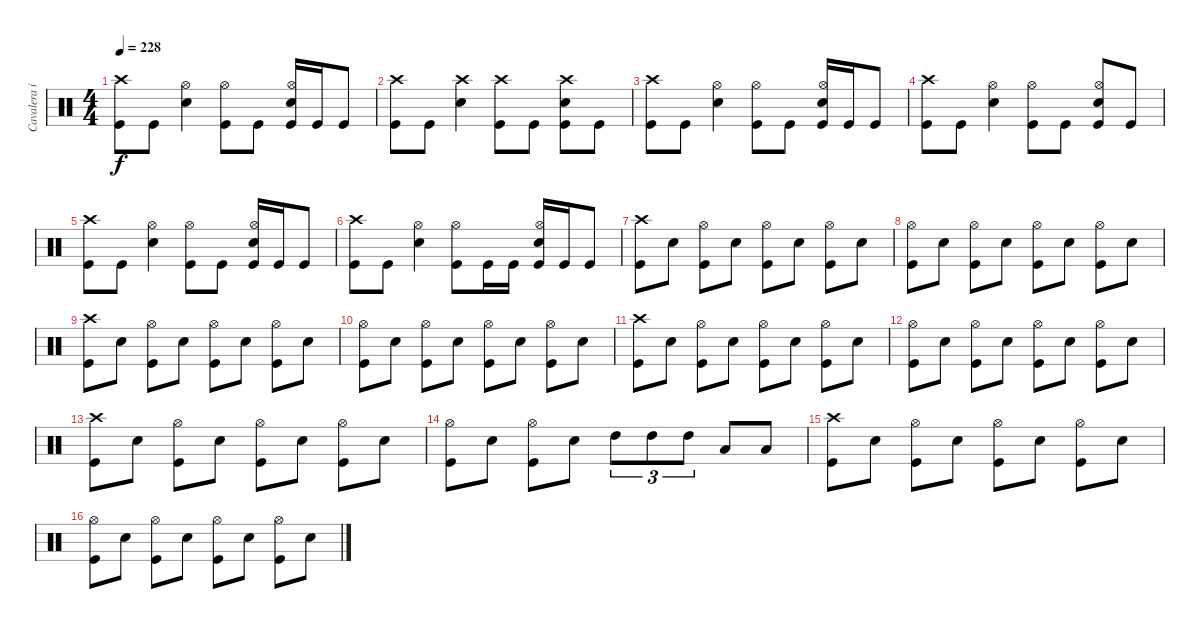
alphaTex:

\track ("Cavalera igor" "Cavalera i") {instrument percussion}
\staff {score}
\articulation defaults
\ts (4 4)
\tempo 228
\clef neutral
\ks c
("Crash high (hit)" "Kick (hit)").8{dy f} "Kick (hit)".8 ("Hi-Hat (open)" "Electric Snare (hit)").4 ("Hi-Hat (open)" "Kick (hit)").8 "Kick (hit)".8 ("Hi-Hat (open)" "Electric Snare (hit)" "Kick (hit)").16 "Kick (hit)".16 "Kick (hit)".8 |
("Crash high (hit)" "Kick (hit)").8 "Kick (hit)".8 ("Crash high (hit)" "Electric Snare (hit)").4 ("Crash high (hit)" "Kick (hit)").8 "Kick (hit)".8 ("Crash high (hit)" "Electric Snare (hit)" "Kick (hit)").8 "Kick (hit)".8 |
("Crash high (hit)" "Kick (hit)").8 "Kick (hit)".8 ("Hi-Hat (open)" "Electric Snare (hit)").4 ("Hi-Hat (open)" "Kick (hit)").8 "Kick (hit)".8 ("Hi-Hat (open)" "Electric Snare (hit)" "Kick (hit)").16 "Kick (hit)".16 "Kick (hit)".8 |
("Crash high (hit)" "Kick (hit)").8 "Kick (hit)".8 ("Hi-Hat (open)" "Electric Snare (hit)").4 ("Hi-Hat (open)" "Kick (hit)").8 "Kick (hit)".8 ("Hi-Hat (open)" "Electric Snare (hit)" "Kick (hit)").8 "Kick (hit)".8 |
("Crash high (hit)" "Kick (hit)").8 "Kick (hit)".8 ("Hi-Hat (open)" "Electric Snare (hit)").4 ("Hi-Hat (open)" "Kick (hit)").8 "Kick (hit)".8 ("Hi-Hat (open)" "Electric Snare (hit)" "Kick (hit)").16 "Kick (hit)".16 "Kick (hit)".8 |
("Crash high (hit)" "Kick (hit)").8 "Kick (hit)".8 ("Hi-Hat (open)" "Electric Snare (hit)").4 ("Hi-Hat (open)" "Kick (hit)").8 "Kick (hit)".16 "Kick (hit)".16 ("Hi-Hat (open)" "Electric Snare (hit)" "Kick (hit)").16 "Kick (hit)".16 "Kick (hit)".8 |
("Crash high (hit)" "Kick (hit)").8 "Electric Snare (hit)".8 ("Hi-Hat (open)" "Kick (hit)").8 "Electric Snare (hit)".8 ("Hi-Hat (open)" "Kick (hit)").8 "Electric Snare (hit)".8 ("Hi-Hat (open)" "Kick (hit)").8 "Electric Snare (hit)".8 |
("Hi-Hat (open)" "Kick (hit)").8 "Electric Snare (hit)".8 ("Hi-Hat (open)" "Kick (hit)").8 "Electric Snare (hit)".8 ("Hi-Hat (open)" "Kick (hit)").8 "Electric Snare (hit)".8 ("Hi-Hat (open)" "Kick (hit)").8 "Electric Snare (hit)".8 |
("Crash high (hit)" "Kick (hit)").8 "Electric Snare (hit)".8 ("Hi-Hat (open)" "Kick (hit)").8 "Electric Snare (hit)".8 ("Hi-Hat (open)" "Kick (hit)").8 "Electric Snare (hit)".8 ("Hi-Hat (open)" "Kick (hit)").8 "Electric Snare (hit)".8 |
("Hi-Hat (open)" "Kick (hit)").8 "Electric Snare (hit)".8 ("Hi-Hat (open)" "Kick (hit)").8 "Electric Snare (hit)".8 ("Hi-Hat (open)" "Kick (hit)").8 "Electric Snare (hit)".8 ("Hi-Hat (open)" "Kick (hit)").8 "Electric Snare (hit)".8 |
("Crash high (hit)" "Kick (hit)").8 "Electric Snare (hit)".8 ("Hi-Hat (open)" "Kick (hit)").8 "Electric Snare (hit)".8 ("Hi-Hat (open)" "Kick (hit)").8 "Electric Snare (hit)".8 ("Hi-Hat (open)" "Kick (hit)").8 "Electric Snare (hit)".8 |
("Hi-Hat (open)" "Kick (hit)").8 "Electric Snare (hit)".8 ("Hi-Hat (open)" "Kick (hit)").8 "Electric Snare (hit)".8 ("Hi-Hat (open)" "Kick (hit)").8 "Electric Snare (hit)".8 ("Hi-Hat (open)" "Kick (hit)").8 "Electric Snare (hit)".8 |
("Crash high (hit)" "Kick (hit)").8 "Electric Snare (hit)".8 ("Hi-Hat (open)" "Kick (hit)").8 "Electric Snare (hit)".8 ("Hi-Hat (open)" "Kick (hit)").8 "Electric Snare (hit)".8 ("Hi-Hat (open)" "Kick (hit)").8 "Electric Snare (hit)".8 |
("Hi-Hat (open)" "Kick (hit)").8 "Electric Snare (hit)".8 ("Hi-Hat (open)" "Kick (hit)").8 "Electric Snare (hit)".8 "High Tom (hit)".8{tu (3 2)} "High Tom (hit)".8{tu (3 2)} "High Tom (hit)".8{tu (3 2)} "Low Tom (hit)".8 "Low Tom (hit)".8 |
("Crash high (hit)" "Kick (hit)").8 "Electric Snare (hit)".8 ("Hi-Hat (open)" "Kick (hit)").8 "Electric Snare (hit)".8 ("Hi-Hat (open)" "Kick (hit)").8 "Electric Snare (hit)".8 ("Hi-Hat (open)" "Kick (hit)").8 "Electric Snare (hit)".8 |
("Hi-Hat (open)" "Kick (hit)").8 "Electric Snare (hit)".8 ("Hi-Hat (open)" "Kick (hit)").8 "Electric Snare (hit)".8 ("Hi-Hat (open)" "Kick (hit)").8 "Electric Snare (hit)".8 ("Hi-Hat (open)" "Kick (hit)").8 "Electric Snare (hit)".8
